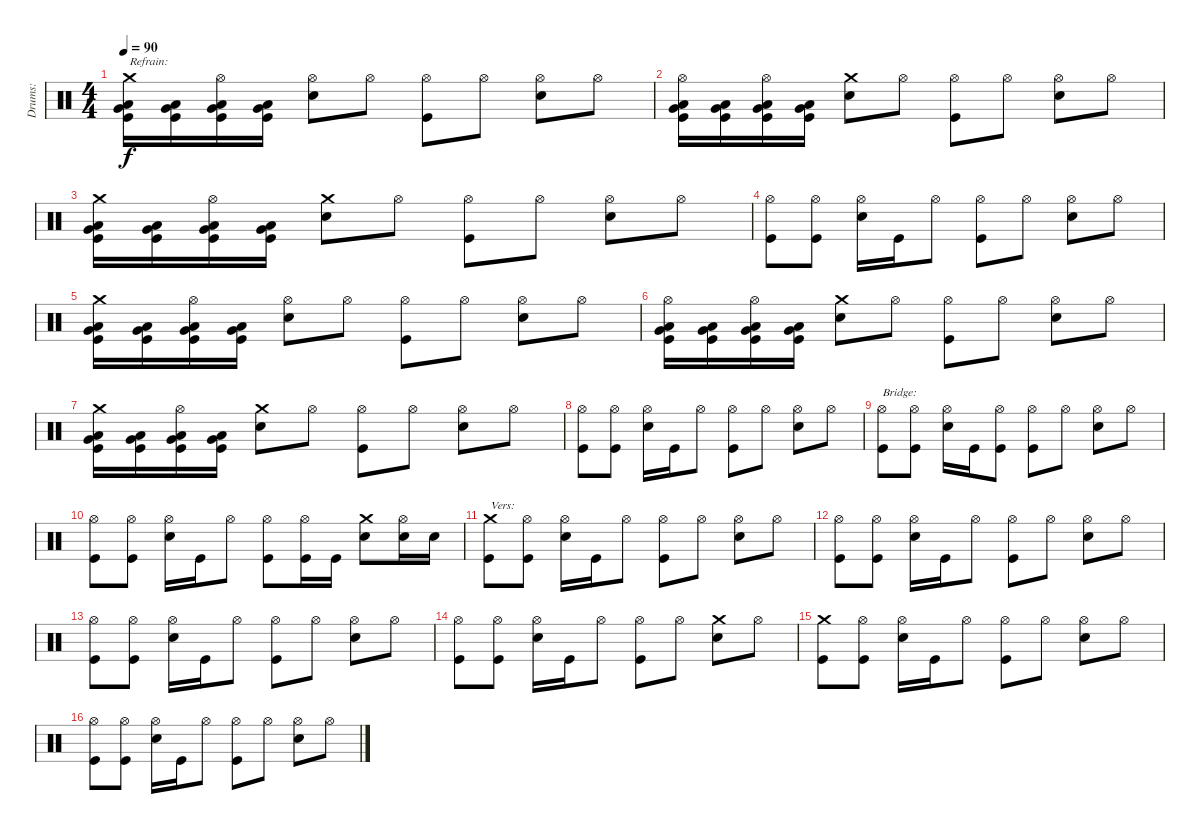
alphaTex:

\track ("Drums:" "Drums:") {instrument percussion}
\staff {score}
\articulation defaults
\ts (4 4)
\tempo 90
\clef neutral
\ks c
("Crash medium (hit)" "Very Low Tom (hit)" "Low Floor Tom (hit)" "Kick (hit)").16{txt "Refrain:" dy f} ("Very Low Tom (hit)" "Low Floor Tom (hit)" "Kick (hit)").16 ("Hi-Hat (open)" "Very Low Tom (hit)" "Low Floor Tom (hit)" "Kick (hit)").16 ("Very Low Tom (hit)" "Low Floor Tom (hit)" "Kick (hit)").16 ("Hi-Hat (open)" "Snare (hit) 2").8 "Hi-Hat (open)".8 ("Hi-Hat (open)" "Kick (hit)").8 "Hi-Hat (open)".8 ("Hi-Hat (open)" "Snare (hit) 2").8 "Hi-Hat (open)".8 |
("Hi-Hat (open)" "Very Low Tom (hit)" "Low Floor Tom (hit)" "Kick (hit)").16 ("Very Low Tom (hit)" "Low Floor Tom (hit)" "Kick (hit)").16 ("Hi-Hat (open)" "Very Low Tom (hit)" "Low Floor Tom (hit)" "Kick (hit)").16 ("Very Low Tom (hit)" "Low Floor Tom (hit)" "Kick (hit)").16 ("Crash medium (hit)" "Snare (hit) 2").8 "Hi-Hat (open)".8 ("Hi-Hat (open)" "Kick (hit)").8 "Hi-Hat (open)".8 ("Hi-Hat (open)" "Snare (hit) 2").8 "Hi-Hat (open)".8 |
("Crash medium (hit)" "Very Low Tom (hit)" "Low Floor Tom (hit)" "Kick (hit)").16 ("Very Low Tom (hit)" "Low Floor Tom (hit)" "Kick (hit)").16 ("Hi-Hat (open)" "Very Low Tom (hit)" "Low Floor Tom (hit)" "Kick (hit)").16 ("Very Low Tom (hit)" "Low Floor Tom (hit)" "Kick (hit)").16 ("Crash medium (hit)" "Snare (hit) 2").8 "Hi-Hat (open)".8 ("Hi-Hat (open)" "Kick (hit)").8 "Hi-Hat (open)".8 ("Hi-Hat (open)" "Snare (hit) 2").8 "Hi-Hat (open)".8 |
("Hi-Hat (open)" "Kick (hit)").8 ("Hi-Hat (open)" "Kick (hit)").8 ("Hi-Hat (open)" "Snare (hit) 2").16 "Kick (hit)".16 "Hi-Hat (open)".8 ("Hi-Hat (open)" "Kick (hit)").8 "Hi-Hat (open)".8 ("Hi-Hat (open)" "Snare (hit) 2").8 "Hi-Hat (open)".8 |
("Crash medium (hit)" "Very Low Tom (hit)" "Low Floor Tom (hit)" "Kick (hit)").16 ("Very Low Tom (hit)" "Low Floor Tom (hit)" "Kick (hit)").16 ("Hi-Hat (open)" "Very Low Tom (hit)" "Low Floor Tom (hit)" "Kick (hit)").16 ("Very Low Tom (hit)" "Low Floor Tom (hit)" "Kick (hit)").16 ("Hi-Hat (open)" "Snare (hit) 2").8 "Hi-Hat (open)".8 ("Hi-Hat (open)" "Kick (hit)").8 "Hi-Hat (open)".8 ("Hi-Hat (open)" "Snare (hit) 2").8 "Hi-Hat (open)".8 |
("Hi-Hat (open)" "Very Low Tom (hit)" "Low Floor Tom (hit)" "Kick (hit)").16 ("Very Low Tom (hit)" "Low Floor Tom (hit)" "Kick (hit)").16 ("Hi-Hat (open)" "Very Low Tom (hit)" "Low Floor Tom (hit)" "Kick (hit)").16 ("Very Low Tom (hit)" "Low Floor Tom (hit)" "Kick (hit)").16 ("Crash medium (hit)" "Snare (hit) 2").8 "Hi-Hat (open)".8 ("Hi-Hat (open)" "Kick (hit)").8 "Hi-Hat (open)".8 ("Hi-Hat (open)" "Snare (hit) 2").8 "Hi-Hat (open)".8 |
("Crash medium (hit)" "Very Low Tom (hit)" "Low Floor Tom (hit)" "Kick (hit)").16 ("Very Low Tom (hit)" "Low Floor Tom (hit)" "Kick (hit)").16 ("Hi-Hat (open)" "Very Low Tom (hit)" "Low Floor Tom (hit)" "Kick (hit)").16 ("Very Low Tom (hit)" "Low Floor Tom (hit)" "Kick (hit)").16 ("Crash medium (hit)" "Snare (hit) 2").8 "Hi-Hat (open)".8 ("Hi-Hat (open)" "Kick (hit)").8 "Hi-Hat (open)".8 ("Hi-Hat (open)" "Snare (hit) 2").8 "Hi-Hat (open)".8 |
("Hi-Hat (open)" "Kick (hit)").8 ("Hi-Hat (open)" "Kick (hit)").8 ("Hi-Hat (open)" "Snare (hit) 2").16 "Kick (hit)".16 "Hi-Hat (open)".8 ("Hi-Hat (open)" "Kick (hit)").8 "Hi-Hat (open)".8 ("Hi-Hat (open)" "Snare (hit) 2").8 "Hi-Hat (open)".8 |
("Hi-Hat (open)" "Kick (hit)").8{txt "Bridge:"} ("Hi-Hat (open)" "Kick (hit)").8 ("Hi-Hat (open)" "Snare (hit) 2").16 "Kick (hit)".16 ("Hi-Hat (open)" "Kick (hit)").8 ("Hi-Hat (open)" "Kick (hit)").8 "Hi-Hat (open)".8 ("Hi-Hat (open)" "Snare (hit) 2").8 "Hi-Hat (open)".8 |
("Hi-Hat (open)" "Kick (hit)").8 ("Hi-Hat (open)" "Kick (hit)").8 ("Hi-Hat (open)" "Snare (hit) 2").16 "Kick (hit)".16 "Hi-Hat (open)".8 ("Hi-Hat (open)" "Kick (hit)").8 ("Hi-Hat (open)" "Kick (hit)").16 "Kick (hit)".16 ("Crash medium (hit)" "Snare (hit) 2").8 ("Hi-Hat (open)" "Snare (hit) 2").16 "Snare (hit) 2".16 |
("Crash medium (hit)" "Kick (hit)").8{txt "Vers:"} ("Hi-Hat (open)" "Kick (hit)").8 ("Hi-Hat (open)" "Snare (hit) 2").16 "Kick (hit)".16 "Hi-Hat (open)".8 ("Hi-Hat (open)" "Kick (hit)").8 "Hi-Hat (open)".8 ("Hi-Hat (open)" "Snare (hit) 2").8 "Hi-Hat (open)".8 |
("Hi-Hat (open)" "Kick (hit)").8 ("Hi-Hat (open)" "Kick (hit)").8 ("Hi-Hat (open)" "Snare (hit) 2").16 "Kick (hit)".16 "Hi-Hat (open)".8 ("Hi-Hat (open)" "Kick (hit)").8 "Hi-Hat (open)".8 ("Hi-Hat (open)" "Snare (hit) 2").8 "Hi-Hat (open)".8 |
("Hi-Hat (open)" "Kick (hit)").8 ("Hi-Hat (open)" "Kick (hit)").8 ("Hi-Hat (open)" "Snare (hit) 2").16 "Kick (hit)".16 "Hi-Hat (open)".8 ("Hi-Hat (open)" "Kick (hit)").8 "Hi-Hat (open)".8 ("Hi-Hat (open)" "Snare (hit) 2").8 "Hi-Hat (open)".8 |
("Hi-Hat (open)" "Kick (hit)").8 ("Hi-Hat (open)" "Kick (hit)").8 ("Hi-Hat (open)" "Snare (hit) 2").16 "Kick (hit)".16 "Hi-Hat (open)".8 ("Hi-Hat (open)" "Kick (hit)").8 "Hi-Hat (open)".8 ("Crash medium (hit)" "Snare (hit) 2").8 "Hi-Hat (open)".8 |
("Crash medium (hit)" "Kick (hit)").8 ("Hi-Hat (open)" "Kick (hit)").8 ("Hi-Hat (open)" "Snare (hit) 2").16 "Kick (hit)".16 "Hi-Hat (open)".8 ("Hi-Hat (open)" "Kick (hit)").8 "Hi-Hat (open)".8 ("Hi-Hat (open)" "Snare (hit) 2").8 "Hi-Hat (open)".8 |
("Hi-Hat (open)" "Kick (hit)").8 ("Hi-Hat (open)" "Kick (hit)").8 ("Hi-Hat (open)" "Snare (hit) 2").16 "Kick (hit)".16 "Hi-Hat (open)".8 ("Hi-Hat (open)" "Kick (hit)").8 "Hi-Hat (open)".8 ("Hi-Hat (open)" "Snare (hit) 2").8 "Hi-Hat (open)".8
